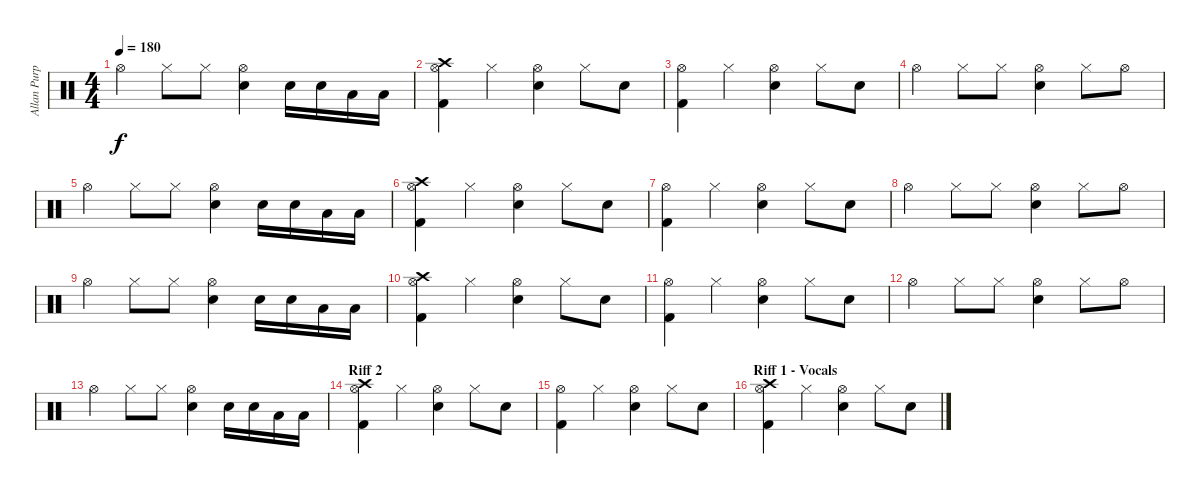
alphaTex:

\track ("Allan Purple" "Allan Purp") {instrument percussion}
\staff {score}
\articulation defaults
\ts (4 4)
\tempo 180
\clef neutral
\ks c "Hi-Hat (open)".4{dy f} "Hi-Hat (closed)".8 "Hi-Hat (closed)".8
("Hi-Hat (open)" "Snare (hit) 2").4 "Electric Snare (hit)".16 "Electric Snare (hit)".16 "Low Tom (hit)".16 "Low Tom (hit)".16 |
("Crash high (hit)" "Hi-Hat (open)" "Kick (hit) 2").4 "Hi-Hat (closed)".4 ("Hi-Hat (open)" "Snare (hit) 2").4 "Hi-Hat (closed)".8 "Snare (hit) 2".8 |
("Hi-Hat (open)" "Kick (hit) 2").4 "Hi-Hat (closed)".4 ("Hi-Hat (open)" "Snare (hit) 2").4 "Hi-Hat (closed)".8 "Snare (hit) 2".8 |
"Hi-Hat (open)".4 "Hi-Hat (closed)".8 "Hi-Hat (closed)".8 ("Hi-Hat (open)" "Snare (hit) 2").4 "Hi-Hat (closed)".8 "Hi-Hat (open)".8 |
"Hi-Hat (open)".4 "Hi-Hat (closed)".8 "Hi-Hat (closed)".8 ("Hi-Hat (open)" "Snare (hit) 2").4 "Electric Snare (hit)".16 "Electric Snare (hit)".16 "Low Tom (hit)".16 "Low Tom (hit)".16 |
("Crash high (hit)" "Hi-Hat (open)" "Kick (hit) 2").4 "Hi-Hat (closed)".4 ("Hi-Hat (open)" "Snare (hit) 2").4 "Hi-Hat (closed)".8 "Snare (hit) 2".8 |
("Hi-Hat (open)" "Kick (hit) 2").4 "Hi-Hat (closed)".4 ("Hi-Hat (open)" "Snare (hit) 2").4 "Hi-Hat (closed)".8 "Snare (hit) 2".8 |
"Hi-Hat (open)".4 "Hi-Hat (closed)".8 "Hi-Hat (closed)".8 ("Hi-Hat (open)" "Snare (hit) 2").4 "Hi-Hat (closed)".8 "Hi-Hat (open)".8 |
"Hi-Hat (open)".4 "Hi-Hat (closed)".8 "Hi-Hat (closed)".8 ("Hi-Hat (open)" "Snare (hit) 2").4 "Electric Snare (hit)".16 "Electric Snare (hit)".16 "Low Tom (hit)".16 "Low Tom (hit)".16 |
("Crash high (hit)" "Hi-Hat (open)" "Kick (hit) 2").4 "Hi-Hat (closed)".4 ("Hi-Hat (open)" "Snare (hit) 2").4 "Hi-Hat (closed)".8 "Snare (hit) 2".8 |
("Hi-Hat (open)" "Kick (hit) 2").4 "Hi-Hat (closed)".4 ("Hi-Hat (open)" "Snare (hit) 2").4 "Hi-Hat (closed)".8 "Snare (hit) 2".8 |
"Hi-Hat (open)".4 "Hi-Hat (closed)".8 "Hi-Hat (closed)".8 ("Hi-Hat (open)" "Snare (hit) 2").4 "Hi-Hat (closed)".8 "Hi-Hat (open)".8 |
"Hi-Hat (open)".4 "Hi-Hat (closed)".8 "Hi-Hat (closed)".8 ("Hi-Hat (open)" "Snare (hit) 2").4 "Electric Snare (hit)".16 "Electric Snare (hit)".16 "Low Tom (hit)".16 "Low Tom (hit)".16 |
\section ("" "Riff 2")
("Crash high (hit)" "Hi-Hat (open)" "Kick (hit) 2").4 "Hi-Hat (closed)".4 ("Hi-Hat (open)" "Snare (hit) 2").4 "Hi-Hat (closed)".8 "Snare (hit) 2".8 |
("Hi-Hat (open)" "Kick (hit) 2").4 "Hi-Hat (closed)".4 ("Hi-Hat (open)" "Snare (hit) 2").4 "Hi-Hat (closed)".8 "Snare (hit) 2".8 |
\section ("" "Riff 1 - Vocals")
("Crash high (hit)" "Hi-Hat (open)" "Kick (hit) 2").4 "Hi-Hat (closed)".4 ("Hi-Hat (open)" "Snare (hit) 2").4 "Hi-Hat (closed)".8 "Snare (hit) 2".8
